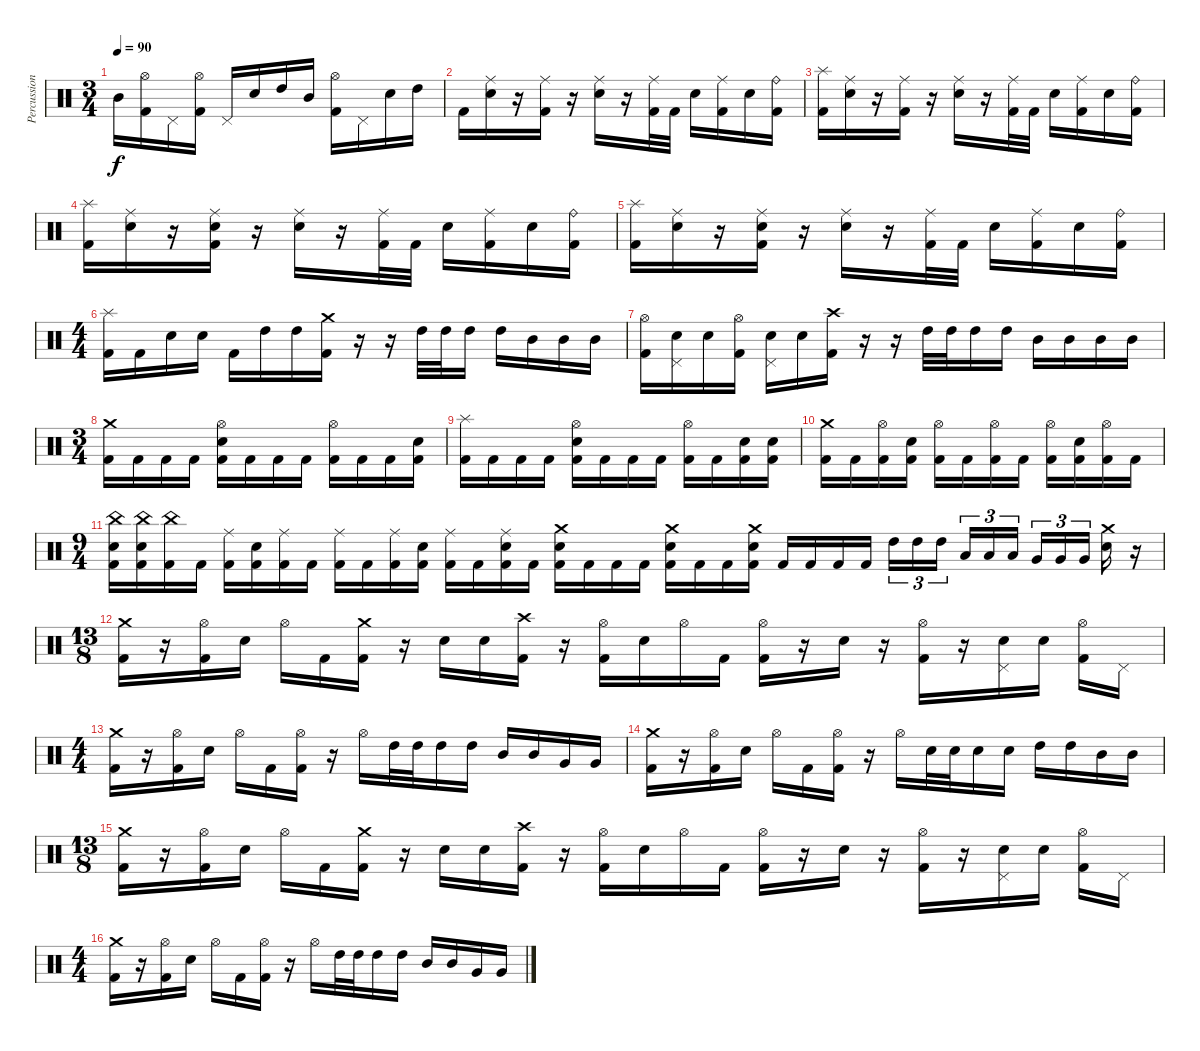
\track ("Percussion" "Percussion") {instrument percussion}
\staff {score}
\articulation defaults
\ts (3 4)
\tempo 90
\clef neutral
\ks c "Mid Tom (hit)".16{dy f}
("Hi-Hat (open)" "Kick (hit) 2").16 "Pedal Hi-Hat (hit)".16 ("Hi-Hat (open)" "Kick (hit) 2").16 "Pedal Hi-Hat (hit)".16 "Electric Snare (hit)".16 "High Tom (hit)".16 "Mid Tom (hit)".16 ("Hi-Hat (open)" "Kick (hit) 2").16 "Pedal Hi-Hat (hit)".16 "Electric Snare (hit)".16 "High Tom (hit)".16 |
"Kick (hit) 2".16 ("Ride (middle)" "Electric Snare (hit)").16 r.16 ("Ride (middle)" "Kick (hit) 2").16 r.16 ("Ride (middle)" "Electric Snare (hit)").16 r.16 ("Ride (middle)" "Kick (hit) 2").32 "Kick (hit) 2".32 "Electric Snare (hit)".16 ("Ride (middle)" "Kick (hit) 2").16 "Electric Snare (hit)".16 ("Ride (bell)" "Kick (hit) 2").16 |
("Splash (hit)" "Kick (hit) 2").16 ("Ride (middle)" "Electric Snare (hit)").16 r.16 ("Ride (middle)" "Kick (hit) 2").16 r.16 ("Ride (middle)" "Electric Snare (hit)").16 r.16 ("Ride (middle)" "Kick (hit) 2").32 "Kick (hit) 2".32 "Electric Snare (hit)".16 ("Ride (middle)" "Kick (hit) 2").16 "Electric Snare (hit)".16 ("Ride (bell)" "Kick (hit) 2").16 |
("Splash (hit)" "Kick (hit) 2").16 ("Ride (middle)" "Electric Snare (hit)").16 r.16 ("Ride (middle)" "Electric Snare (hit)" "Kick (hit) 2").16 r.16 ("Ride (middle)" "Electric Snare (hit)").16 r.16 ("Ride (middle)" "Kick (hit) 2").32 "Kick (hit) 2".32 "Electric Snare (hit)".16 ("Ride (middle)" "Kick (hit) 2").16 "Electric Snare (hit)".16 ("Ride (bell)" "Kick (hit) 2").16 |
("Splash (hit)" "Kick (hit) 2").16 ("Ride (middle)" "Electric Snare (hit)").16 r.16 ("Ride (middle)" "Electric Snare (hit)" "Kick (hit) 2").16 r.16 ("Ride (middle)" "Electric Snare (hit)").16 r.16 ("Ride (middle)" "Kick (hit) 2").32 "Kick (hit) 2".32 "Electric Snare (hit)".16 ("Ride (middle)" "Kick (hit) 2").16 "Electric Snare (hit)".16 ("Ride (bell)" "Kick (hit) 2").16 |
\ts (4 4)
("Splash (hit)" "Kick (hit) 2").16 "Kick (hit) 2".16 "Electric Snare (hit)".16 "Electric Snare (hit)".16 "Kick (hit) 2".16 "High Tom (hit)".16 "High Tom (hit)".16 ("Crash medium (hit)" "Kick (hit) 2").16 r.16 r.16 "High Tom (hit)".32 "High Tom (hit)".32 "High Tom (hit)".16 "High Tom (hit)".16 "Mid Tom (hit)".16 "Mid Tom (hit)".16 "Mid Tom (hit)".16 |
("Hi-Hat (open)" "Kick (hit) 2").16 ("Pedal Hi-Hat (hit)" "Electric Snare (hit)").16 "Electric Snare (hit)".16 ("Hi-Hat (open)" "Kick (hit) 2").16 ("Pedal Hi-Hat (hit)" "Electric Snare (hit)").16 "Electric Snare (hit)".16 ("Crash high (hit)" "Kick (hit) 2").16 r.16 r.16 "High Tom (hit)".32 "High Tom (hit)".32 "High Tom (hit)".16 "High Tom (hit)".16 "Mid Tom (hit)".16 "Mid Tom (hit)".16 "Mid Tom (hit)".16 "Mid Tom (hit)".16 |
\ts (3 4)
("Crash medium (hit)" "Kick (hit) 2").16 "Kick (hit) 2".16 "Kick (hit) 2".16 "Kick (hit) 2".16 ("Hi-Hat (open)" "Electric Snare (hit)" "Kick (hit) 2").16 "Kick (hit) 2".16 "Kick (hit) 2".16 "Kick (hit) 2".16 ("Hi-Hat (open)" "Kick (hit) 2").16 "Kick (hit) 2".16 "Kick (hit) 2".16 ("Electric Snare (hit)" "Kick (hit) 2").16 |
("Splash (hit)" "Kick (hit) 2").16 "Kick (hit) 2".16 "Kick (hit) 2".16 "Kick (hit) 2".16 ("Hi-Hat (open)" "Electric Snare (hit)" "Kick (hit) 2").16 "Kick (hit) 2".16 "Kick (hit) 2".16 "Kick (hit) 2".16 ("Hi-Hat (open)" "Kick (hit) 2").16 "Kick (hit) 2".16 ("Electric Snare (hit)" "Kick (hit) 2").16 ("Electric Snare (hit)" "Kick (hit) 2").16 |
("Crash medium (hit)" "Kick (hit) 2").16 "Kick (hit) 2".16 ("Hi-Hat (open)" "Kick (hit) 2").16 ("Electric Snare (hit)" "Kick (hit) 2").16 ("Hi-Hat (open)" "Kick (hit) 2").16 "Kick (hit) 2".16 ("Hi-Hat (open)" "Kick (hit) 2").16 "Kick (hit) 2".16 ("Hi-Hat (open)" "Kick (hit) 2").16 ("Electric Snare (hit)" "Kick (hit) 2").16 ("Hi-Hat (open)" "Kick (hit) 2").16 "Kick (hit) 2".16 |
\ts (9 4)
("China (hit)" "Electric Snare (hit)" "Kick (hit) 2").16 ("China (hit)" "Electric Snare (hit)" "Kick (hit) 2").16 ("China (hit)" "Kick (hit) 2").16 "Kick (hit) 2".16 ("Ride (middle)" "Kick (hit) 2").16 ("Electric Snare (hit)" "Kick (hit) 2").16 ("Ride (middle)" "Kick (hit) 2").16 "Kick (hit) 2".16 ("Ride (middle)" "Kick (hit) 2").16 "Kick (hit) 2".16 ("Ride (middle)" "Kick (hit) 2").16 ("Electric Snare (hit)" "Kick (hit) 2").16 ("Ride (middle)" "Kick (hit) 2").16 "Kick (hit) 2".16 ("Ride (middle)" "Electric Snare (hit)" "Kick (hit) 2").16 "Kick (hit) 2".16 ("Crash medium (hit)" "Electric Snare (hit)" "Kick (hit) 2").16 "Kick (hit) 2".16 "Kick (hit) 2".16 "Kick (hit) 2".16 ("Crash medium (hit)" "Electric Snare (hit)" "Kick (hit) 2").16 "Kick (hit) 2".16 "Kick (hit) 2".16 ("Crash medium (hit)" "Electric Snare (hit)" "Kick (hit) 2").16 "Kick (hit) 2".16 "Kick (hit) 2".16 "Kick (hit) 2".16 "Kick (hit) 2".16 "High Tom (hit)".16{tu (3 2)} "High Tom (hit)".16{tu (3 2)} "High Tom (hit)".16{tu (3 2)} "Low Tom (hit)".16{tu (3 2)} "Low Tom (hit)".16{tu (3 2)} "Low Tom (hit)".16{tu (3 2)} "Very Low Tom (hit)".16{tu (3 2)} "Very Low Tom (hit)".16{tu (3 2)} "Very Low Tom (hit)".16{tu (3 2)} ("Crash medium (hit)" "Electric Snare (hit)").16 r.16 |
\ts (13 8)
("Crash medium (hit)" "Kick (hit) 2").16 r.16 ("Hi-Hat (open)" "Kick (hit) 2").16 "Electric Snare (hit)".16 "Hi-Hat (open)".16 "Kick (hit) 2".16 ("Crash medium (hit)" "Kick (hit) 2").16 r.16 "Electric Snare (hit)".16 "Electric Snare (hit)".16 ("Crash high (hit)" "Kick (hit) 2").16 r.16 ("Hi-Hat (open)" "Kick (hit) 2").16 "Electric Snare (hit)".16 "Hi-Hat (open)".16 "Kick (hit) 2".16 ("Hi-Hat (open)" "Kick (hit) 2").16 r.16 "Electric Snare (hit)".16 r.16 ("Hi-Hat (open)" "Kick (hit) 2").16 r.16 ("Pedal Hi-Hat (hit)" "Electric Snare (hit)").16 "Electric Snare (hit)".16 ("Hi-Hat (open)" "Kick (hit) 2").16 "Pedal Hi-Hat (hit)".16 |
\ts (4 4)
("Crash medium (hit)" "Kick (hit) 2").16 r.16 ("Hi-Hat (open)" "Kick (hit) 2").16 "Electric Snare (hit)".16 "Hi-Hat (open)".16 "Kick (hit) 2".16 ("Hi-Hat (open)" "Kick (hit) 2").16 r.16 "Hi-Hat (open)".16 "High Tom (hit)".32 "High Tom (hit)".32 "High Tom (hit)".16 "High Tom (hit)".16 "Mid Tom (hit)".16 "Mid Tom (hit)".16 "Very Low Tom (hit)".16 "Very Low Tom (hit)".16 |
("Crash medium (hit)" "Kick (hit) 2").16 r.16 ("Hi-Hat (open)" "Kick (hit) 2").16 "Electric Snare (hit)".16 "Hi-Hat (open)".16 "Kick (hit) 2".16 ("Hi-Hat (open)" "Kick (hit) 2").16 r.16 "Hi-Hat (open)".16 "Electric Snare (hit)".32 "Electric Snare (hit)".32 "Electric Snare (hit)".16 "Electric Snare (hit)".16 "High Tom (hit)".16 "High Tom (hit)".16 "Mid Tom (hit)".16 "Mid Tom (hit)".16 |
\ts (13 8)
("Crash medium (hit)" "Kick (hit) 2").16 r.16 ("Hi-Hat (open)" "Kick (hit) 2").16 "Electric Snare (hit)".16 "Hi-Hat (open)".16 "Kick (hit) 2".16 ("Crash medium (hit)" "Kick (hit) 2").16 r.16 "Electric Snare (hit)".16 "Electric Snare (hit)".16 ("Crash high (hit)" "Kick (hit) 2").16 r.16 ("Hi-Hat (open)" "Kick (hit) 2").16 "Electric Snare (hit)".16 "Hi-Hat (open)".16 "Kick (hit) 2".16 ("Hi-Hat (open)" "Kick (hit) 2").16 r.16 "Electric Snare (hit)".16 r.16 ("Hi-Hat (open)" "Kick (hit) 2").16 r.16 ("Pedal Hi-Hat (hit)" "Electric Snare (hit)").16 "Electric Snare (hit)".16 ("Hi-Hat (open)" "Kick (hit) 2").16 "Pedal Hi-Hat (hit)".16 |
\ts (4 4)
("Crash medium (hit)" "Kick (hit) 2").16 r.16 ("Hi-Hat (open)" "Kick (hit) 2").16 "Electric Snare (hit)".16 "Hi-Hat (open)".16 "Kick (hit) 2".16 ("Hi-Hat (open)" "Kick (hit) 2").16 r.16 "Hi-Hat (open)".16 "High Tom (hit)".32 "High Tom (hit)".32 "High Tom (hit)".16 "High Tom (hit)".16 "Mid Tom (hit)".16 "Mid Tom (hit)".16 "Very Low Tom (hit)".16 "Very Low Tom (hit)".16
